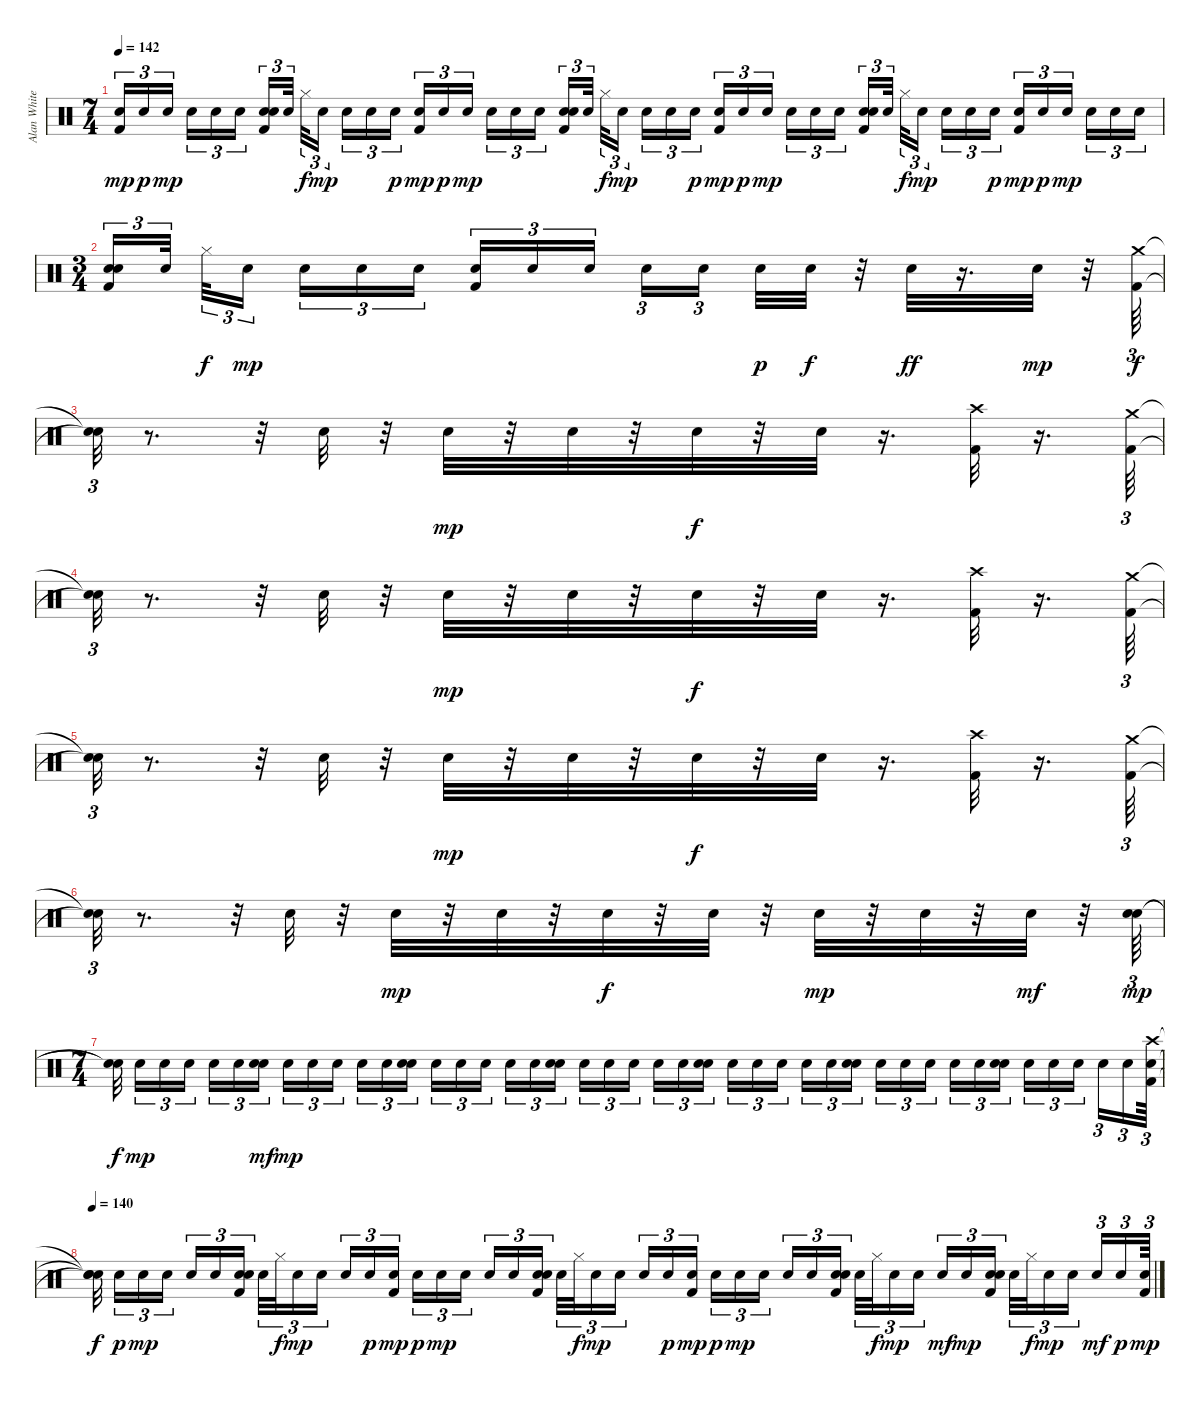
\track ("Alan White" "Alan White") {instrument percussion}
\staff {score}
\articulation defaults
\ts (7 4)
\tempo 142
\clef neutral
\ks c
("Kick (hit) 2" "Electric Snare (hit)").16{tu (3 2) dy mp} "Electric Snare (hit)".16{tu (3 2) dy p} "Electric Snare (hit)".16{tu (3 2) dy mp beam splitsecondary} "Electric Snare (hit)".16{tu (3 2)} "Electric Snare (hit)".16{tu (3 2)} "Electric Snare (hit)".16{tu (3 2)} ("Electric Snare (hit)" "Kick (hit) 2" "Snare (hit) 2").16{tu (3 2)} "Electric Snare (hit)".32{tu (3 2) beam splitsecondary} "Hi-Hat (closed)".32{tu (3 2) dy f} "Electric Snare (hit)".16{tu (3 2) dy mp beam splitsecondary} "Electric Snare (hit)".16{tu (3 2)} "Electric Snare (hit)".16{tu (3 2)} "Electric Snare (hit)".16{tu (3 2) dy p} ("Kick (hit) 2" "Electric Snare (hit)").16{tu (3 2) dy mp} "Electric Snare (hit)".16{tu (3 2) dy p} "Electric Snare (hit)".16{tu (3 2) dy mp beam splitsecondary} "Electric Snare (hit)".16{tu (3 2)} "Electric Snare (hit)".16{tu (3 2)} "Electric Snare (hit)".16{tu (3 2)} ("Electric Snare (hit)" "Kick (hit) 2" "Snare (hit) 2").16{tu (3 2)} "Electric Snare (hit)".32{tu (3 2) beam splitsecondary} "Hi-Hat (closed)".32{tu (3 2) dy f} "Electric Snare (hit)".16{tu (3 2) dy mp beam splitsecondary} "Electric Snare (hit)".16{tu (3 2)} "Electric Snare (hit)".16{tu (3 2)} "Electric Snare (hit)".16{tu (3 2) dy p} ("Kick (hit) 2" "Electric Snare (hit)").16{tu (3 2) dy mp} "Electric Snare (hit)".16{tu (3 2) dy p} "Electric Snare (hit)".16{tu (3 2) dy mp beam splitsecondary} "Electric Snare (hit)".16{tu (3 2)} "Electric Snare (hit)".16{tu (3 2)} "Electric Snare (hit)".16{tu (3 2)} ("Kick (hit) 2" "Electric Snare (hit)" "Snare (hit) 2").16{tu (3 2)} "Electric Snare (hit)".32{tu (3 2) beam splitsecondary} "Hi-Hat (closed)".32{tu (3 2) dy f} "Electric Snare (hit)".16{tu (3 2) dy mp beam splitsecondary} "Electric Snare (hit)".16{tu (3 2)} "Electric Snare (hit)".16{tu (3 2)} "Electric Snare (hit)".16{tu (3 2) dy p} ("Kick (hit) 2" "Electric Snare (hit)").16{tu (3 2) dy mp} "Electric Snare (hit)".16{tu (3 2) dy p} "Electric Snare (hit)".16{tu (3 2) dy mp beam splitsecondary} "Electric Snare (hit)".16{tu (3 2)} "Electric Snare (hit)".16{tu (3 2)} "Electric Snare (hit)".16{tu (3 2)} |
\ts (3 4)
("Electric Snare (hit)" "Kick (hit) 2" "Snare (hit) 2").16{tu (3 2)} "Electric Snare (hit)".32{tu (3 2) beam splitsecondary} "Hi-Hat (closed)".32{tu (3 2) dy f} "Electric Snare (hit)".16{tu (3 2) dy mp beam splitsecondary} "Electric Snare (hit)".16{tu (3 2)} "Electric Snare (hit)".16{tu (3 2)} "Electric Snare (hit)".16{tu (3 2)} ("Kick (hit) 2" "Electric Snare (hit)").16{tu (3 2)} "Electric Snare (hit)".16{tu (3 2)} "Electric Snare (hit)".16{tu (3 2) beam splitsecondary} "Electric Snare (hit)".16{tu (3 2)} "Electric Snare (hit)".16{tu (3 2) beam splitsecondary} "Electric Snare (hit)".32{dy p} "Electric Snare (hit)".32{dy f} r.32 "Electric Snare (hit)".32{dy ff} r.16{d} "Electric Snare (hit)".32{dy mp} r.32 ("Crash medium (hit)" "Kick (hit) 2").64{tu (3 2) dy f} |
("Snare (hit)"{t} "Snare (hit)"{t}).32{tu (3 2)} r.8{d} r.32 "Electric Snare (hit)".32 r.32 "Electric Snare (hit)".32{dy mp} r.32 "Electric Snare (hit)".32 r.32 "Electric Snare (hit)".32{dy f} r.32 "Electric Snare (hit)".32 r.16{d} ("Kick (hit) 2" "Crash high (hit)").32 r.16{d} ("Kick (hit) 2" "Crash medium (hit)").64{tu (3 2)} |
("Snare (hit)"{t} "Snare (hit)"{t}).32{tu (3 2)} r.8{d} r.32 "Electric Snare (hit)".32 r.32 "Electric Snare (hit)".32{dy mp} r.32 "Electric Snare (hit)".32 r.32 "Electric Snare (hit)".32{dy f} r.32 "Electric Snare (hit)".32 r.16{d} ("Kick (hit) 2" "Crash high (hit)").32 r.16{d} ("Kick (hit) 2" "Crash medium (hit)").64{tu (3 2)} |
("Snare (hit)"{t} "Snare (hit)"{t}).32{tu (3 2)} r.8{d} r.32 "Electric Snare (hit)".32 r.32 "Electric Snare (hit)".32{dy mp} r.32 "Electric Snare (hit)".32 r.32 "Electric Snare (hit)".32{dy f} r.32 "Electric Snare (hit)".32 r.16{d} ("Crash high (hit)" "Kick (hit) 2").32 r.16{d} ("Kick (hit) 2" "Crash medium (hit)").64{tu (3 2)} |
("Snare (hit)"{t} "Snare (hit)"{t}).32{tu (3 2)} r.8{d} r.32 "Electric Snare (hit)".32 r.32 "Electric Snare (hit)".32{dy mp} r.32 "Electric Snare (hit)".32 r.32 "Electric Snare (hit)".32{dy f} r.32 "Electric Snare (hit)".32 r.32 "Electric Snare (hit)".32{dy mp} r.32 "Electric Snare (hit)".32 r.32 "Electric Snare (hit)".32{dy mf} r.32 ("Snare (hit) 2" "Electric Snare (hit)").64{tu (3 2) dy mp} |
\ts (7 4)
("Snare (hit)"{t} "Snare (hit)"{t}).32{dy f beam splitsecondary} "Electric Snare (hit)".16{tu (3 2) dy mp} "Electric Snare (hit)".16{tu (3 2)} "Electric Snare (hit)".16{tu (3 2) beam splitsecondary} "Electric Snare (hit)".16{tu (3 2)} "Electric Snare (hit)".16{tu (3 2)} ("Snare (hit) 2" "Electric Snare (hit)").16{tu (3 2) dy mf} "Electric Snare (hit)".16{tu (3 2) dy mp} "Electric Snare (hit)".16{tu (3 2)} "Electric Snare (hit)".16{tu (3 2) beam splitsecondary} "Electric Snare (hit)".16{tu (3 2)} "Electric Snare (hit)".16{tu (3 2)} ("Snare (hit) 2" "Electric Snare (hit)").16{tu (3 2)} "Electric Snare (hit)".16{tu (3 2)} "Electric Snare (hit)".16{tu (3 2)} "Electric Snare (hit)".16{tu (3 2) beam splitsecondary} "Electric Snare (hit)".16{tu (3 2)} "Electric Snare (hit)".16{tu (3 2)} ("Snare (hit) 2" "Electric Snare (hit)").16{tu (3 2)} "Electric Snare (hit)".16{tu (3 2)} "Electric Snare (hit)".16{tu (3 2)} "Electric Snare (hit)".16{tu (3 2) beam splitsecondary} "Electric Snare (hit)".16{tu (3 2)} "Electric Snare (hit)".16{tu (3 2)} ("Snare (hit) 2" "Electric Snare (hit)").16{tu (3 2)} "Electric Snare (hit)".16{tu (3 2)} "Electric Snare (hit)".16{tu (3 2)} "Electric Snare (hit)".16{tu (3 2) beam splitsecondary} "Electric Snare (hit)".16{tu (3 2)} "Electric Snare (hit)".16{tu (3 2)} ("Snare (hit) 2" "Electric Snare (hit)").16{tu (3 2)} "Electric Snare (hit)".16{tu (3 2)} "Electric Snare (hit)".16{tu (3 2)} "Electric Snare (hit)".16{tu (3 2) beam splitsecondary} "Electric Snare (hit)".16{tu (3 2)} "Electric Snare (hit)".16{tu (3 2)} ("Snare (hit) 2" "Electric Snare (hit)").16{tu (3 2)} "Electric Snare (hit)".16{tu (3 2)} "Electric Snare (hit)".16{tu (3 2)} "Electric Snare (hit)".16{tu (3 2) beam splitsecondary} "Electric Snare (hit)".16{tu (3 2)} "Electric Snare (hit)".16{tu (3 2)} ("Kick (hit) 2" "Electric Snare (hit)" "Crash high (hit)").64{tu (3 2)} |
\tempo 140
("Snare (hit)"{t} "Snare (hit)"{t} "Snare (hit)"{t}).32{dy f beam splitsecondary} "Electric Snare (hit)".16{tu (3 2) dy p} "Electric Snare (hit)".16{tu (3 2) dy mp} "Electric Snare (hit)".16{tu (3 2) beam splitsecondary} "Electric Snare (hit)".16{tu (3 2)} "Electric Snare (hit)".16{tu (3 2)} ("Kick (hit) 2" "Electric Snare (hit)" "Snare (hit) 2").16{tu (3 2)} "Electric Snare (hit)".32{tu (3 2)} "Hi-Hat (closed)".32{tu (3 2) dy f} "Electric Snare (hit)".16{tu (3 2) dy mp} "Electric Snare (hit)".16{tu (3 2) beam splitsecondary} "Electric Snare (hit)".16{tu (3 2)} "Electric Snare (hit)".16{tu (3 2) dy p} ("Kick (hit) 2" "Electric Snare (hit)").16{tu (3 2) dy mp} "Electric Snare (hit)".16{tu (3 2) dy p} "Electric Snare (hit)".16{tu (3 2) dy mp} "Electric Snare (hit)".16{tu (3 2) beam splitsecondary} "Electric Snare (hit)".16{tu (3 2)} "Electric Snare (hit)".16{tu (3 2)} ("Kick (hit) 2" "Electric Snare (hit)" "Snare (hit) 2").16{tu (3 2)} "Electric Snare (hit)".32{tu (3 2)} "Hi-Hat (closed)".32{tu (3 2) dy f} "Electric Snare (hit)".16{tu (3 2) dy mp} "Electric Snare (hit)".16{tu (3 2) beam splitsecondary} "Electric Snare (hit)".16{tu (3 2)} "Electric Snare (hit)".16{tu (3 2) dy p} ("Electric Snare (hit)" "Kick (hit) 2").16{tu (3 2) dy mp} "Electric Snare (hit)".16{tu (3 2) dy p} "Electric Snare (hit)".16{tu (3 2) dy mp} "Electric Snare (hit)".16{tu (3 2) beam splitsecondary} "Electric Snare (hit)".16{tu (3 2)} "Electric Snare (hit)".16{tu (3 2)} ("Snare (hit) 2" "Kick (hit) 2" "Electric Snare (hit)").16{tu (3 2)} "Electric Snare (hit)".32{tu (3 2)} "Hi-Hat (closed)".32{tu (3 2) dy f} "Electric Snare (hit)".16{tu (3 2) dy mp} "Electric Snare (hit)".16{tu (3 2) beam splitsecondary} "Electric Snare (hit)".16{tu (3 2) dy mf} "Electric Snare (hit)".16{tu (3 2) dy mp} ("Electric Snare (hit)" "Kick (hit) 2" "Snare (hit) 2").16{tu (3 2)} "Electric Snare (hit)".32{tu (3 2)} "Hi-Hat (closed)".32{tu (3 2) dy f} "Electric Snare (hit)".16{tu (3 2) dy mp} "Electric Snare (hit)".16{tu (3 2) beam splitsecondary} "Electric Snare (hit)".16{tu (3 2) dy mf} "Electric Snare (hit)".16{tu (3 2) dy p} ("Kick (hit) 2" "Electric Snare (hit)").64{tu (3 2) dy mp}
